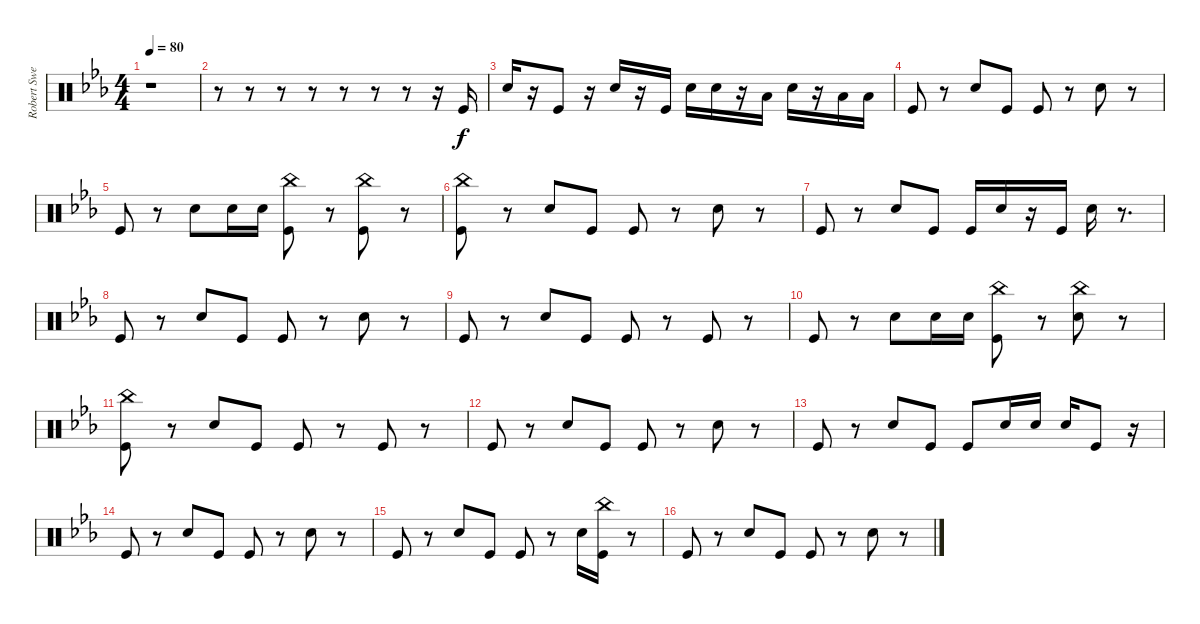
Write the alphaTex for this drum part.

\track ("Robert Sweet" "Robert Swe") {instrument percussion}
\staff {score}
\articulation defaults
\ts (4 4)
\tempo 80
\clef neutral
\ks eb
r.1{dy f} |
r.8 r.8 r.8 r.8 r.8 r.8 r.8 r.16 "Kick (hit)".16 |
"Snare (hit) 2".16 r.16 "Kick (hit)".8 r.16 "Snare (hit) 2".16 r.16 "Kick (hit)".16 "Snare (hit) 2".16 "Snare (hit) 2".16 r.16 "Low Floor Tom (hit)".16 "Snare (hit) 2".16 r.16 "Low Floor Tom (hit)".16 "Low Floor Tom (hit)".16 |
"Kick (hit)".8 r.8 "Snare (hit) 2".8 "Kick (hit)".8 "Kick (hit)".8 r.8 "Snare (hit) 2".8 r.8 |
"Kick (hit)".8 r.8 "Snare (hit) 2".8 "Snare (hit) 2".16 "Snare (hit) 2".16 ("Kick (hit)" "China (hit)").8 r.8 ("Kick (hit)" "China (hit)").8 r.8 |
("Kick (hit)" "China (hit)").8 r.8 "Snare (hit) 2".8 "Kick (hit)".8 "Kick (hit)".8 r.8 "Snare (hit) 2".8 r.8 |
"Kick (hit)".8 r.8 "Snare (hit) 2".8 "Kick (hit)".8 "Kick (hit)".16 "Snare (hit) 2".16 r.16 "Kick (hit)".16 "Snare (hit) 2".16 r.8{d} |
"Kick (hit)".8 r.8 "Snare (hit) 2".8 "Kick (hit)".8 "Kick (hit)".8 r.8 "Snare (hit) 2".8 r.8 |
"Kick (hit)".8 r.8 "Snare (hit) 2".8 "Kick (hit)".8 "Kick (hit)".8 r.8 "Kick (hit)".8 r.8 |
"Kick (hit)".8 r.8 "Snare (hit) 2".8 "Snare (hit) 2".16 "Snare (hit) 2".16 ("Kick (hit)" "China (hit)").8 r.8 ("Snare (hit) 2" "China (hit)").8 r.8 |
("Kick (hit)" "China (hit)").8 r.8 "Snare (hit) 2".8 "Kick (hit)".8 "Kick (hit)".8 r.8 "Kick (hit)".8 r.8 |
"Kick (hit)".8 r.8 "Snare (hit) 2".8 "Kick (hit)".8 "Kick (hit)".8 r.8 "Snare (hit) 2".8 r.8 |
"Kick (hit)".8 r.8 "Snare (hit) 2".8 "Kick (hit)".8 "Kick (hit)".8 "Snare (hit) 2".16 "Snare (hit) 2".16 "Snare (hit) 2".16 "Kick (hit)".8 r.16 |
"Kick (hit)".8 r.8 "Snare (hit) 2".8 "Kick (hit)".8 "Kick (hit)".8 r.8 "Snare (hit) 2".8 r.8 |
"Kick (hit)".8 r.8 "Snare (hit) 2".8 "Kick (hit)".8 "Kick (hit)".8 r.8 "Snare (hit) 2".16 ("Kick (hit)" "China (hit)").16 r.8 |
"Kick (hit)".8 r.8 "Snare (hit) 2".8 "Kick (hit)".8 "Kick (hit)".8 r.8 "Snare (hit) 2".8 r.8
